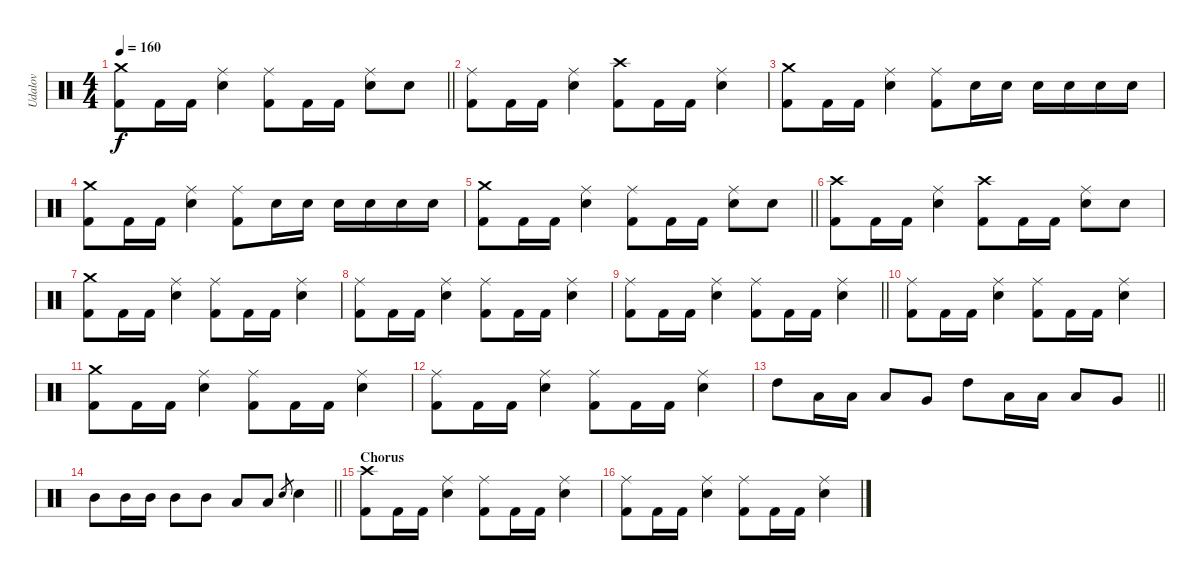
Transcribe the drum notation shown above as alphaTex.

\track ("Udalov" "Udalov") {instrument percussion}
\staff {score}
\articulation defaults
\ts (4 4)
\tempo 160
\clef neutral
\barLineRight lightlight
\ks c
("Kick (hit) 2" "Crash medium (hit)").8{dy f} "Kick (hit) 2".16 "Kick (hit) 2".16 ("Snare (hit) 2" "Ride (middle)").4 ("Kick (hit) 2" "Ride (middle)").8 "Kick (hit) 2".16 "Kick (hit) 2".16 ("Snare (hit) 2" "Ride (middle)").8 "Snare (hit) 2".8 |
("Kick (hit) 2" "Ride (middle)").8 "Kick (hit) 2".16 "Kick (hit) 2".16 ("Snare (hit) 2" "Ride (middle)").4 ("Kick (hit) 2" "Crash high (hit)").8 "Kick (hit) 2".16 "Kick (hit) 2".16 ("Snare (hit) 2" "Ride (middle)").4 |
("Kick (hit) 2" "Crash medium (hit)").8 "Kick (hit) 2".16 "Kick (hit) 2".16 ("Snare (hit) 2" "Ride (middle)").4 ("Kick (hit) 2" "Ride (middle)").8 "Snare (hit) 2".16 "Snare (hit) 2".16 "Snare (hit) 2".16 "Snare (hit) 2".16 "Snare (hit) 2".16 "Snare (hit) 2".16 |
("Kick (hit) 2" "Crash medium (hit)").8 "Kick (hit) 2".16 "Kick (hit) 2".16 ("Snare (hit) 2" "Ride (middle)").4 ("Kick (hit) 2" "Ride (middle)").8 "Snare (hit) 2".16 "Snare (hit) 2".16 "Snare (hit) 2".16 "Snare (hit) 2".16 "Snare (hit) 2".16 "Snare (hit) 2".16 |
\barLineRight lightlight
("Kick (hit) 2" "Crash medium (hit)").8 "Kick (hit) 2".16 "Kick (hit) 2".16 ("Snare (hit) 2" "Ride (middle)").4 ("Kick (hit) 2" "Ride (middle)").8 "Kick (hit) 2".16 "Kick (hit) 2".16 ("Snare (hit) 2" "Ride (middle)").8 "Snare (hit) 2".8 |
("Kick (hit) 2" "Crash high (hit)").8 "Kick (hit) 2".16 "Kick (hit) 2".16 ("Snare (hit) 2" "Ride (middle)").4 ("Kick (hit) 2" "Crash high (hit)").8 "Kick (hit) 2".16 "Kick (hit) 2".16 ("Snare (hit) 2" "Ride (middle)").8 "Snare (hit) 2".8 |
("Kick (hit) 2" "Crash medium (hit)").8 "Kick (hit) 2".16 "Kick (hit) 2".16 ("Snare (hit) 2" "Ride (middle)").4 ("Kick (hit) 2" "Ride (middle)").8 "Kick (hit) 2".16 "Kick (hit) 2".16 ("Snare (hit) 2" "Ride (middle)").4 |
("Kick (hit) 2" "Ride (middle)").8 "Kick (hit) 2".16 "Kick (hit) 2".16 ("Snare (hit) 2" "Ride (middle)").4 ("Kick (hit) 2" "Ride (middle)").8 "Kick (hit) 2".16 "Kick (hit) 2".16 ("Snare (hit) 2" "Ride (middle)").4 |
\barLineRight lightlight
("Kick (hit) 2" "Ride (middle)").8 "Kick (hit) 2".16 "Kick (hit) 2".16 ("Snare (hit) 2" "Ride (middle)").4 ("Kick (hit) 2" "Ride (middle)").8 "Kick (hit) 2".16 "Kick (hit) 2".16 ("Snare (hit) 2" "Ride (middle)").4 |
("Kick (hit) 2" "Ride (middle)").8 "Kick (hit) 2".16 "Kick (hit) 2".16 ("Snare (hit) 2" "Ride (middle)").4 ("Kick (hit) 2" "Ride (middle)").8 "Kick (hit) 2".16 "Kick (hit) 2".16 ("Snare (hit) 2" "Ride (middle)").4 |
("Kick (hit) 2" "Crash medium (hit)").8 "Kick (hit) 2".16 "Kick (hit) 2".16 ("Snare (hit) 2" "Ride (middle)").4 ("Kick (hit) 2" "Ride (middle)").8 "Kick (hit) 2".16 "Kick (hit) 2".16 ("Snare (hit) 2" "Ride (middle)").4 |
("Kick (hit) 2" "Ride (middle)").8 "Kick (hit) 2".16 "Kick (hit) 2".16 ("Snare (hit) 2" "Ride (middle)").4 ("Kick (hit) 2" "Ride (middle)").8 "Kick (hit) 2".16 "Kick (hit) 2".16 ("Snare (hit) 2" "Ride (middle)").4 |
\barLineRight lightlight "High Tom (hit)".8 "Low Tom (hit)".16 "Low Tom (hit)".16 "Low Tom (hit)".8 "Very Low Tom (hit)".8 "High Tom (hit)".8 "Low Tom (hit)".16 "Low Tom (hit)".16 "Low Tom (hit)".8 "Very Low Tom (hit)".8
|
\barLineRight lightlight "Mid Tom (hit)".8 "Mid Tom (hit)".16 "Mid Tom (hit)".16 "Mid Tom (hit)".8 "Mid Tom (hit)".8 "Low Tom (hit)".8 "Low Tom (hit)".8 "Snare (hit) 2".8{gr} "Snare (hit) 2".4
|
\section ("" "Chorus")
("Kick (hit) 2" "Crash high (hit)").8 "Kick (hit) 2".16 "Kick (hit) 2".16 ("Snare (hit) 2" "Ride (middle)").4 ("Kick (hit) 2" "Ride (middle)").8 "Kick (hit) 2".16 "Kick (hit) 2".16 ("Snare (hit) 2" "Ride (middle)").4 |
("Kick (hit) 2" "Ride (middle)").8 "Kick (hit) 2".16 "Kick (hit) 2".16 ("Snare (hit) 2" "Ride (middle)").4 ("Kick (hit) 2" "Ride (middle)").8 "Kick (hit) 2".16 "Kick (hit) 2".16 ("Snare (hit) 2" "Ride (middle)").4
